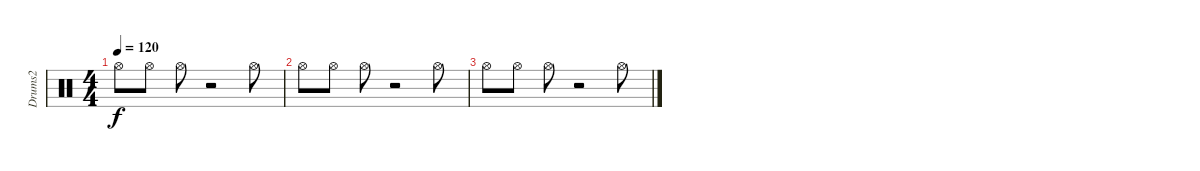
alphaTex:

\track ("Drums2" "Drums2") {instrument percussion}
\staff {score}
\articulation defaults
\ts (4 4)
\tempo 120
\clef neutral
\ks c "Hi-Hat (open)".8{dy f} "Hi-Hat (open)".8 "Hi-Hat (open)".8
r.2 "Hi-Hat (open)".8 |
"Hi-Hat (open)".8 "Hi-Hat (open)".8 "Hi-Hat (open)".8 r.2 "Hi-Hat (open)".8 |
"Hi-Hat (open)".8 "Hi-Hat (open)".8 "Hi-Hat (open)".8 r.2 "Hi-Hat (open)".8
